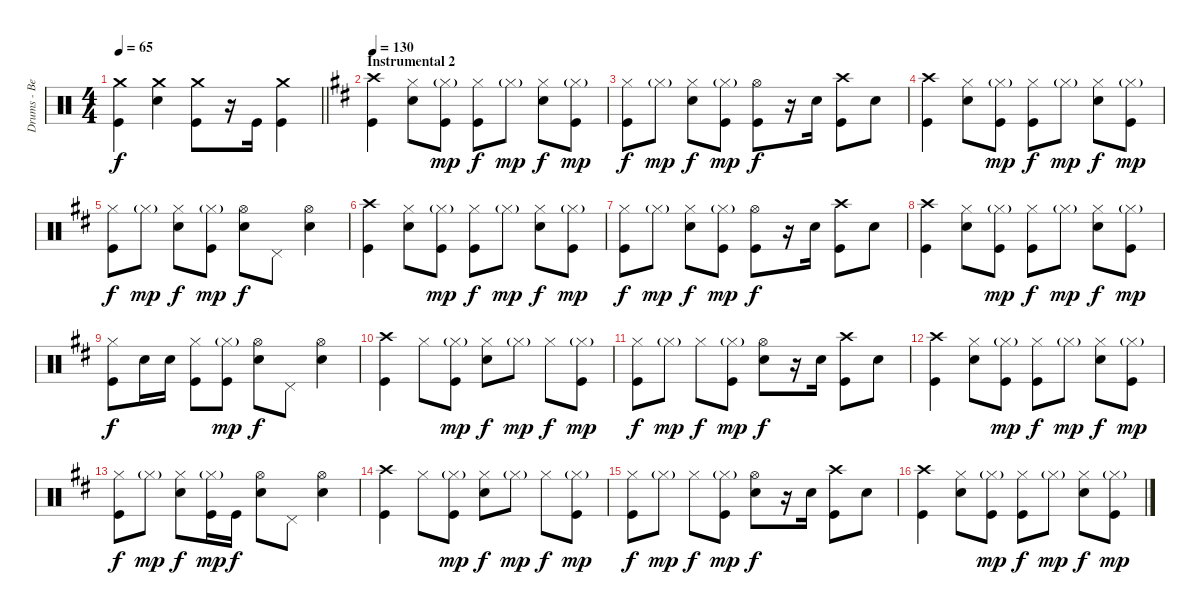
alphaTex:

\track ("Drums - Ben Johnston" "Drums - Be") {instrument percussion}
\staff {score}
\articulation defaults
\ts (4 4)
\tempo 65
\clef neutral
\barLineRight lightlight
\ks c
("Crash medium (hit)" "Kick (hit)").4{dy f} ("Crash medium (hit)" "Snare (hit) 2").4 ("Crash medium (hit)" "Kick (hit)").8 r.16 "Kick (hit)".16 ("Crash medium (hit)" "Kick (hit)").4 |
\section ("" "Instrumental 2")
\tempo 130
\ks d
("Crash high (hit)" "Kick (hit)").4 ("Hi-Hat (closed)" "Snare (hit) 2").8 ("Hi-Hat (closed)"{g} "Kick (hit)").8{dy mp} ("Hi-Hat (closed)" "Kick (hit)").8{dy f} "Hi-Hat (closed)"{g}.8{dy mp} ("Hi-Hat (closed)" "Snare (hit) 2").8{dy f} ("Hi-Hat (closed)"{g} "Kick (hit)").8{dy mp} |
("Hi-Hat (closed)" "Kick (hit)").8{dy f} "Hi-Hat (closed)"{g}.8{dy mp} ("Hi-Hat (closed)" "Snare (hit) 2").8{dy f} ("Hi-Hat (closed)"{g} "Kick (hit)").8{dy mp} ("Hi-Hat (open)" "Kick (hit)").8{dy f} r.16 "Snare (hit) 2".16 ("Crash high (hit)" "Kick (hit)").8 "Snare (hit) 2".8 |
("Crash high (hit)" "Kick (hit)").4 ("Hi-Hat (closed)" "Snare (hit) 2").8 ("Hi-Hat (closed)"{g} "Kick (hit)").8{dy mp} ("Hi-Hat (closed)" "Kick (hit)").8{dy f} "Hi-Hat (closed)"{g}.8{dy mp} ("Hi-Hat (closed)" "Snare (hit) 2").8{dy f} ("Hi-Hat (closed)"{g} "Kick (hit)").8{dy mp} |
("Hi-Hat (closed)" "Kick (hit)").8{dy f} "Hi-Hat (closed)"{g}.8{dy mp} ("Hi-Hat (closed)" "Snare (hit) 2").8{dy f} ("Hi-Hat (closed)"{g} "Kick (hit)").8{dy mp} ("Hi-Hat (open)" "Snare (hit) 2").8{dy f} "Pedal Hi-Hat (hit)".8 ("Hi-Hat (open)" "Snare (hit) 2").4 |
("Crash high (hit)" "Kick (hit)").4 ("Hi-Hat (closed)" "Snare (hit) 2").8 ("Hi-Hat (closed)"{g} "Kick (hit)").8{dy mp} ("Hi-Hat (closed)" "Kick (hit)").8{dy f} "Hi-Hat (closed)"{g}.8{dy mp} ("Hi-Hat (closed)" "Snare (hit) 2").8{dy f} ("Hi-Hat (closed)"{g} "Kick (hit)").8{dy mp} |
("Hi-Hat (closed)" "Kick (hit)").8{dy f} "Hi-Hat (closed)"{g}.8{dy mp} ("Hi-Hat (closed)" "Snare (hit) 2").8{dy f} ("Hi-Hat (closed)"{g} "Kick (hit)").8{dy mp} ("Hi-Hat (open)" "Kick (hit)").8{dy f} r.16 "Snare (hit) 2".16 ("Crash high (hit)" "Kick (hit)").8 "Snare (hit) 2".8 |
("Crash high (hit)" "Kick (hit)").4 ("Hi-Hat (closed)" "Snare (hit) 2").8 ("Hi-Hat (closed)"{g} "Kick (hit)").8{dy mp} ("Hi-Hat (closed)" "Kick (hit)").8{dy f} "Hi-Hat (closed)"{g}.8{dy mp} ("Hi-Hat (closed)" "Snare (hit) 2").8{dy f} ("Hi-Hat (closed)"{g} "Kick (hit)").8{dy mp} |
("Hi-Hat (closed)" "Kick (hit)").8{dy f} "Snare (hit) 2".16 "Snare (hit) 2".16 ("Hi-Hat (closed)" "Kick (hit)").8 ("Hi-Hat (closed)"{g} "Kick (hit)").8{dy mp} ("Hi-Hat (open)" "Snare (hit) 2").8{dy f} "Pedal Hi-Hat (hit)".8 ("Hi-Hat (open)" "Snare (hit) 2").4 |
("Crash high (hit)" "Kick (hit)").4 "Hi-Hat (closed)".8 ("Hi-Hat (closed)"{g} "Kick (hit)").8{dy mp} ("Hi-Hat (closed)" "Snare (hit) 2").8{dy f} "Hi-Hat (closed)"{g}.8{dy mp} "Hi-Hat (closed)".8{dy f} ("Hi-Hat (closed)"{g} "Kick (hit)").8{dy mp} |
("Hi-Hat (closed)" "Kick (hit)").8{dy f} "Hi-Hat (closed)"{g}.8{dy mp} "Hi-Hat (closed)".8{dy f} ("Hi-Hat (closed)"{g} "Kick (hit)").8{dy mp} ("Hi-Hat (open)" "Snare (hit) 2").8{dy f} r.16 "Snare (hit) 2".16 ("Crash high (hit)" "Kick (hit)").8 "Snare (hit) 2".8 |
("Crash high (hit)" "Kick (hit)").4 ("Hi-Hat (closed)" "Snare (hit) 2").8 ("Hi-Hat (closed)"{g} "Kick (hit)").8{dy mp} ("Hi-Hat (closed)" "Kick (hit)").8{dy f} "Hi-Hat (closed)"{g}.8{dy mp} ("Hi-Hat (closed)" "Snare (hit) 2").8{dy f} ("Hi-Hat (closed)"{g} "Kick (hit)").8{dy mp} |
("Hi-Hat (closed)" "Kick (hit)").8{dy f} "Hi-Hat (closed)"{g}.8{dy mp} ("Hi-Hat (closed)" "Snare (hit) 2").8{dy f} ("Hi-Hat (closed)"{g} "Kick (hit)").16{dy mp} "Kick (hit)".16{dy f} ("Hi-Hat (open)" "Snare (hit) 2").8 "Pedal Hi-Hat (hit)".8 ("Hi-Hat (open)" "Snare (hit) 2").4 |
("Crash high (hit)" "Kick (hit)").4 "Hi-Hat (closed)".8 ("Hi-Hat (closed)"{g} "Kick (hit)").8{dy mp} ("Hi-Hat (closed)" "Snare (hit) 2").8{dy f} "Hi-Hat (closed)"{g}.8{dy mp} "Hi-Hat (closed)".8{dy f} ("Hi-Hat (closed)"{g} "Kick (hit)").8{dy mp} |
("Hi-Hat (closed)" "Kick (hit)").8{dy f} "Hi-Hat (closed)"{g}.8{dy mp} "Hi-Hat (closed)".8{dy f} ("Hi-Hat (closed)"{g} "Kick (hit)").8{dy mp} ("Hi-Hat (open)" "Snare (hit) 2").8{dy f} r.16 "Snare (hit) 2".16 ("Crash high (hit)" "Kick (hit)").8 "Snare (hit) 2".8 |
("Crash high (hit)" "Kick (hit)").4 ("Hi-Hat (closed)" "Snare (hit) 2").8 ("Hi-Hat (closed)"{g} "Kick (hit)").8{dy mp} ("Hi-Hat (closed)" "Kick (hit)").8{dy f} "Hi-Hat (closed)"{g}.8{dy mp} ("Hi-Hat (closed)" "Snare (hit) 2").8{dy f} ("Hi-Hat (closed)"{g} "Kick (hit)").8{dy mp}
